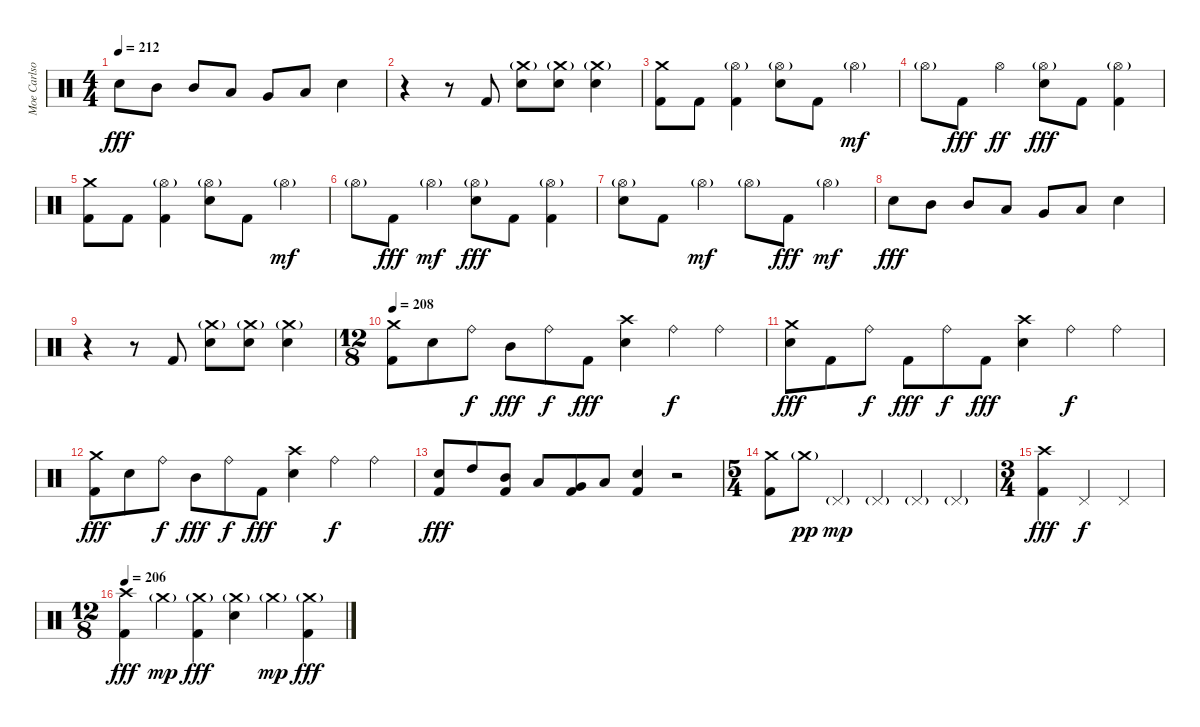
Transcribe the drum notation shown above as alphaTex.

\track ("Moe Carlson" "Moe Carlso") {instrument percussion}
\staff {score}
\articulation defaults
\ts (4 4)
\tempo 212
\clef neutral
\ks c "Electric Snare (hit)".8{dy fff} "Mid Tom (hit)".8 "Mid Tom (hit)".8 "Low Tom (hit)".8 "Very Low Tom (hit)".8 "Low Floor Tom (hit)".8 "Electric Snare (hit)".4
|
r.4 r.8 "Kick (hit) 2".8 ("Crash medium (hit)"{g} "Electric Snare (hit)").8 ("Crash medium (hit)"{g} "Electric Snare (hit)").8 ("Crash medium (hit)"{g} "Electric Snare (hit)").4 |
("Crash medium (hit)" "Kick (hit) 2").8 "Kick (hit) 2".8 ("Hi-Hat (open)"{g} "Kick (hit) 2").4 ("Hi-Hat (open)"{g} "Electric Snare (hit)").8 "Kick (hit) 2".8 "Hi-Hat (open)"{g}.4{dy mf} |
"Hi-Hat (open)"{g}.8 "Kick (hit) 2".8{dy fff} "Hi-Hat (open)".4{dy ff} ("Hi-Hat (open)"{g} "Electric Snare (hit)").8{dy fff} "Kick (hit) 2".8 ("Hi-Hat (open)"{g} "Kick (hit) 2").4 |
("Crash medium (hit)" "Kick (hit) 2").8 "Kick (hit) 2".8 ("Hi-Hat (open)"{g} "Kick (hit) 2").4 ("Hi-Hat (open)"{g} "Electric Snare (hit)").8 "Kick (hit) 2".8 "Hi-Hat (open)"{g}.4{dy mf} |
"Hi-Hat (open)"{g}.8 "Kick (hit) 2".8{dy fff} "Hi-Hat (open)"{g}.4{dy mf} ("Hi-Hat (open)"{g} "Electric Snare (hit)").8{dy fff} "Kick (hit) 2".8 ("Hi-Hat (open)"{g} "Kick (hit) 2").4 |
("Hi-Hat (open)"{g} "Electric Snare (hit)").8 "Kick (hit) 2".8 "Hi-Hat (open)"{g}.4{dy mf} "Hi-Hat (open)"{g}.8 "Kick (hit) 2".8{dy fff} "Hi-Hat (open)"{g}.4{dy mf} |
"Electric Snare (hit)".8{dy fff} "Mid Tom (hit)".8 "Mid Tom (hit)".8 "Low Tom (hit)".8 "Very Low Tom (hit)".8 "Low Floor Tom (hit)".8 "Electric Snare (hit)".4 |
r.4 r.8 "Kick (hit) 2".8 ("Crash medium (hit)"{g} "Electric Snare (hit)").8 ("Crash medium (hit)"{g} "Electric Snare (hit)").8 ("Crash medium (hit)"{g} "Electric Snare (hit)").4 |
\ts (12 8)
\tempo 208
("Crash medium (hit)" "Kick (hit) 2").8 "Electric Snare (hit)".8 "Ride (bell)".8{dy f} "Mid Tom (hit)".8{dy fff} "Ride (bell)".8{dy f} "Kick (hit) 2".8{dy fff} ("Crash high (hit)" "Electric Snare (hit)").4 "Ride (bell)".4{dy f} "Ride (bell)".4 |
("Crash medium (hit)" "Electric Snare (hit)").8{dy fff} "Kick (hit) 2".8 "Ride (bell)".8{dy f} "Kick (hit) 2".8{dy fff} "Ride (bell)".8{dy f} "Kick (hit) 2".8{dy fff} ("Crash high (hit)" "Electric Snare (hit)").4 "Ride (bell)".4{dy f} "Ride (bell)".4 |
("Crash medium (hit)" "Kick (hit) 2").8{dy fff} "Electric Snare (hit)".8 "Ride (bell)".8{dy f} "Mid Tom (hit)".8{dy fff} "Ride (bell)".8{dy f} "Kick (hit) 2".8{dy fff} ("Crash high (hit)" "Electric Snare (hit)").4 "Ride (bell)".4{dy f} "Ride (bell)".4 |
("Electric Snare (hit)" "Kick (hit) 2").8{dy fff} "High Tom (hit)".8 ("Mid Tom (hit)" "Kick (hit) 2").8 "Low Tom (hit)".8 ("Very Low Tom (hit)" "Kick (hit) 2").8 "Low Floor Tom (hit)".8 ("Electric Snare (hit)" "Kick (hit) 2").4 r.2 |
\ts (5 4)
("Crash medium (hit)" "Kick (hit) 2").8 "Crash medium (hit)"{g}.8{dy pp} "Pedal Hi-Hat (hit)"{g}.4{dy mp} "Pedal Hi-Hat (hit)"{g}.4 "Pedal Hi-Hat (hit)"{g}.4 "Pedal Hi-Hat (hit)"{g}.4 |
\ts (3 4)
("Crash high (hit)" "Kick (hit) 2").4{dy fff} "Pedal Hi-Hat (hit)".4{dy f} "Pedal Hi-Hat (hit)".4 |
\ts (12 8)
\tempo 206
("Crash high (hit)" "Kick (hit) 2").4{dy fff} "Crash medium (hit)"{g}.4{dy mp} ("Crash medium (hit)"{g} "Kick (hit) 2").4{dy fff} ("Crash medium (hit)"{g} "Electric Snare (hit)").4 "Crash medium (hit)"{g}.4{dy mp} ("Crash medium (hit)"{g} "Kick (hit) 2").4{dy fff}
